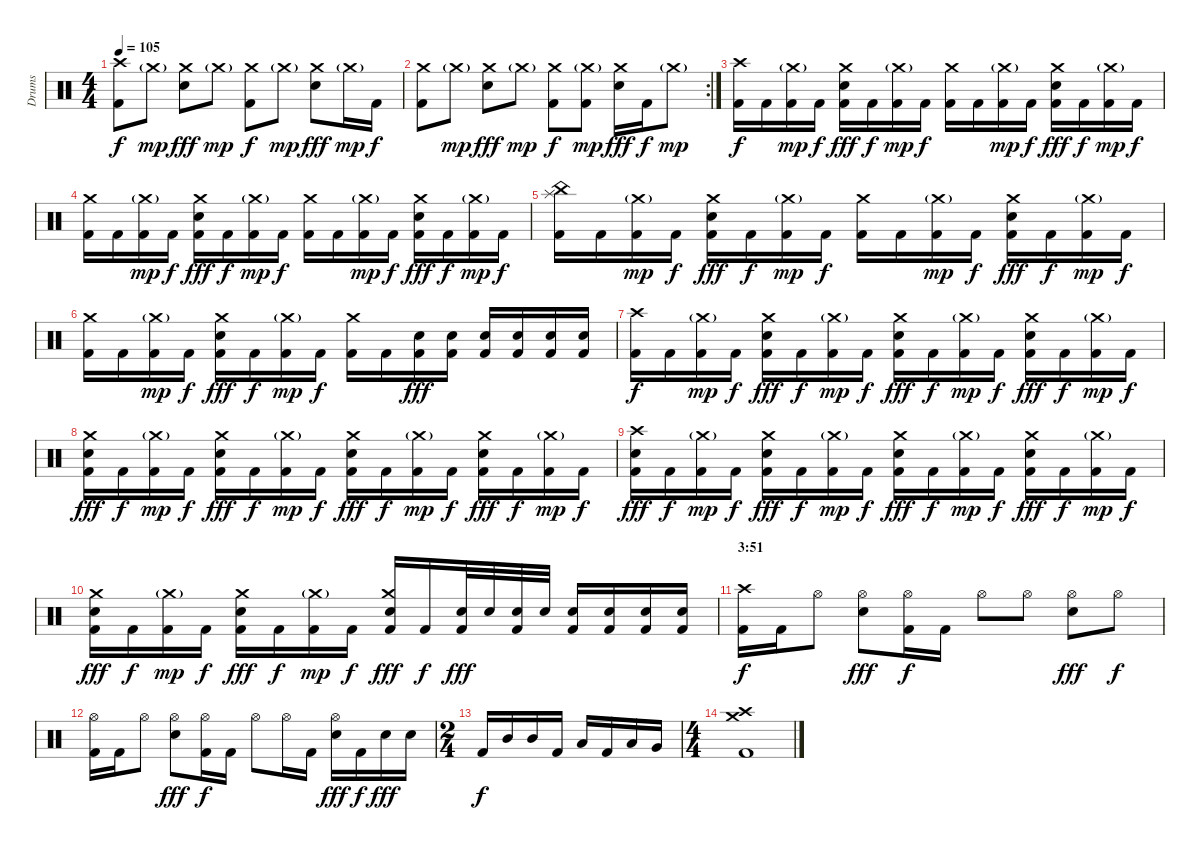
\track ("Drums" "Drums") {instrument percussion}
\staff {score}
\articulation defaults
\ts (4 4)
\tempo 105
\clef neutral
\ks c
("Crash high (hit)" "Kick (hit) 2").8{dy f} "Crash medium (hit)"{g}.8{dy mp} ("Crash medium (hit)" "Snare (hit) 2").8{dy fff} "Crash medium (hit)"{g}.8{dy mp} ("Crash medium (hit)" "Kick (hit) 2").8{dy f} "Crash medium (hit)"{g}.8{dy mp} ("Crash medium (hit)" "Snare (hit) 2").8{dy fff} "Crash medium (hit)"{g}.16{dy mp} "Kick (hit) 2".16{dy f} |
\rc 2
("Crash medium (hit)" "Kick (hit) 2").8 "Crash medium (hit)"{g}.8{dy mp} ("Crash medium (hit)" "Snare (hit) 2").8{dy fff} "Crash medium (hit)"{g}.8{dy mp} ("Crash medium (hit)" "Kick (hit) 2").8{dy f} ("Crash medium (hit)"{g} "Kick (hit) 2").8{dy mp} ("Crash medium (hit)" "Snare (hit) 2").16{dy fff} "Kick (hit) 2".16{dy f} "Crash medium (hit)"{g}.8{dy mp} |
("Crash high (hit)" "Kick (hit) 2").16{dy f} "Kick (hit) 2".16 ("Crash medium (hit)"{g} "Kick (hit) 2").16{dy mp} "Kick (hit) 2".16{dy f} ("Crash medium (hit)" "Snare (hit) 2" "Kick (hit) 2").16{dy fff} "Kick (hit) 2".16{dy f} ("Crash medium (hit)"{g} "Kick (hit) 2").16{dy mp} "Kick (hit) 2".16{dy f} ("Crash medium (hit)" "Kick (hit) 2").16 "Kick (hit) 2".16 ("Crash medium (hit)"{g} "Kick (hit) 2").16{dy mp} "Kick (hit) 2".16{dy f} ("Crash medium (hit)" "Snare (hit) 2" "Kick (hit) 2").16{dy fff} "Kick (hit) 2".16{dy f} ("Crash medium (hit)"{g} "Kick (hit) 2").16{dy mp} "Kick (hit) 2".16{dy f} |
("Crash medium (hit)" "Kick (hit) 2").16 "Kick (hit) 2".16 ("Crash medium (hit)"{g} "Kick (hit) 2").16{dy mp} "Kick (hit) 2".16{dy f} ("Crash medium (hit)" "Snare (hit) 2" "Kick (hit) 2").16{dy fff} "Kick (hit) 2".16{dy f} ("Crash medium (hit)"{g} "Kick (hit) 2").16{dy mp} "Kick (hit) 2".16{dy f} ("Crash medium (hit)" "Kick (hit) 2").16 "Kick (hit) 2".16 ("Crash medium (hit)"{g} "Kick (hit) 2").16{dy mp} "Kick (hit) 2".16{dy f} ("Crash medium (hit)" "Snare (hit) 2" "Kick (hit) 2").16{dy fff} "Kick (hit) 2".16{dy f} ("Crash medium (hit)"{g} "Kick (hit) 2").16{dy mp} "Kick (hit) 2".16{dy f} |
("China (hit)" "Splash (hit)" "Kick (hit) 2").16 "Kick (hit) 2".16 ("Crash medium (hit)"{g} "Kick (hit) 2").16{dy mp} "Kick (hit) 2".16{dy f} ("Crash medium (hit)" "Snare (hit) 2" "Kick (hit) 2").16{dy fff} "Kick (hit) 2".16{dy f} ("Crash medium (hit)"{g} "Kick (hit) 2").16{dy mp} "Kick (hit) 2".16{dy f} ("Crash medium (hit)" "Kick (hit) 2").16 "Kick (hit) 2".16 ("Crash medium (hit)"{g} "Kick (hit) 2").16{dy mp} "Kick (hit) 2".16{dy f} ("Crash medium (hit)" "Snare (hit) 2" "Kick (hit) 2").16{dy fff} "Kick (hit) 2".16{dy f} ("Crash medium (hit)"{g} "Kick (hit) 2").16{dy mp} "Kick (hit) 2".16{dy f} |
("Crash medium (hit)" "Kick (hit) 2").16 "Kick (hit) 2".16 ("Crash medium (hit)"{g} "Kick (hit) 2").16{dy mp} "Kick (hit) 2".16{dy f} ("Crash medium (hit)" "Snare (hit) 2" "Kick (hit) 2").16{dy fff} "Kick (hit) 2".16{dy f} ("Crash medium (hit)"{g} "Kick (hit) 2").16{dy mp} "Kick (hit) 2".16{dy f} ("Crash medium (hit)" "Kick (hit) 2").16 "Kick (hit) 2".16 ("Snare (hit) 2" "Kick (hit) 2").16{dy fff} ("Snare (hit) 2" "Kick (hit) 2").16 ("Snare (hit) 2" "Kick (hit) 2").16 ("Snare (hit) 2" "Kick (hit) 2").16 ("Snare (hit) 2" "Kick (hit) 2").16 ("Snare (hit) 2" "Kick (hit) 2").16 |
("Crash high (hit)" "Kick (hit) 2").16{dy f} "Kick (hit) 2".16 ("Crash medium (hit)"{g} "Kick (hit) 2").16{dy mp} "Kick (hit) 2".16{dy f} ("Crash medium (hit)" "Snare (hit) 2" "Kick (hit) 2").16{dy fff} "Kick (hit) 2".16{dy f} ("Crash medium (hit)"{g} "Kick (hit) 2").16{dy mp} "Kick (hit) 2".16{dy f} ("Crash medium (hit)" "Snare (hit) 2" "Kick (hit) 2").16{dy fff} "Kick (hit) 2".16{dy f} ("Crash medium (hit)"{g} "Kick (hit) 2").16{dy mp} "Kick (hit) 2".16{dy f} ("Crash medium (hit)" "Snare (hit) 2" "Kick (hit) 2").16{dy fff} "Kick (hit) 2".16{dy f} ("Crash medium (hit)"{g} "Kick (hit) 2").16{dy mp} "Kick (hit) 2".16{dy f} |
("Crash medium (hit)" "Snare (hit) 2" "Kick (hit) 2").16{dy fff} "Kick (hit) 2".16{dy f} ("Crash medium (hit)"{g} "Kick (hit) 2").16{dy mp} "Kick (hit) 2".16{dy f} ("Crash medium (hit)" "Snare (hit) 2" "Kick (hit) 2").16{dy fff} "Kick (hit) 2".16{dy f} ("Crash medium (hit)"{g} "Kick (hit) 2").16{dy mp} "Kick (hit) 2".16{dy f} ("Crash medium (hit)" "Snare (hit) 2" "Kick (hit) 2").16{dy fff} "Kick (hit) 2".16{dy f} ("Crash medium (hit)"{g} "Kick (hit) 2").16{dy mp} "Kick (hit) 2".16{dy f} ("Crash medium (hit)" "Snare (hit) 2" "Kick (hit) 2").16{dy fff} "Kick (hit) 2".16{dy f} ("Crash medium (hit)"{g} "Kick (hit) 2").16{dy mp} "Kick (hit) 2".16{dy f} |
("Crash high (hit)" "Snare (hit) 2" "Kick (hit) 2").16{dy fff} "Kick (hit) 2".16{dy f} ("Crash medium (hit)"{g} "Kick (hit) 2").16{dy mp} "Kick (hit) 2".16{dy f} ("Crash medium (hit)" "Snare (hit) 2" "Kick (hit) 2").16{dy fff} "Kick (hit) 2".16{dy f} ("Crash medium (hit)"{g} "Kick (hit) 2").16{dy mp} "Kick (hit) 2".16{dy f} ("Crash medium (hit)" "Snare (hit) 2" "Kick (hit) 2").16{dy fff} "Kick (hit) 2".16{dy f} ("Crash medium (hit)"{g} "Kick (hit) 2").16{dy mp} "Kick (hit) 2".16{dy f} ("Crash medium (hit)" "Snare (hit) 2" "Kick (hit) 2").16{dy fff} "Kick (hit) 2".16{dy f} ("Crash medium (hit)"{g} "Kick (hit) 2").16{dy mp} "Kick (hit) 2".16{dy f} |
("Crash medium (hit)" "Snare (hit) 2" "Kick (hit) 2").16{dy fff} "Kick (hit) 2".16{dy f} ("Crash medium (hit)"{g} "Kick (hit) 2").16{dy mp} "Kick (hit) 2".16{dy f} ("Crash medium (hit)" "Snare (hit) 2" "Kick (hit) 2").16{dy fff} "Kick (hit) 2".16{dy f} ("Crash medium (hit)"{g} "Kick (hit) 2").16{dy mp} "Kick (hit) 2".16{dy f} ("Crash medium (hit)" "Snare (hit) 2" "Kick (hit) 2").16{dy fff} "Kick (hit) 2".16{dy f} ("Snare (hit) 2" "Kick (hit) 2").32{dy fff} "Snare (hit) 2".32 ("Snare (hit) 2" "Kick (hit) 2").32 "Snare (hit) 2".32 ("Snare (hit) 2" "Kick (hit) 2").16 ("Snare (hit) 2" "Kick (hit) 2").16 ("Snare (hit) 2" "Kick (hit) 2").16 ("Snare (hit) 2" "Kick (hit) 2").16 |
\section ("" "3:51")
("Crash high (hit)" "Kick (hit) 2").16{dy f} "Kick (hit) 2".16 "Hi-Hat (open)".8 ("Hi-Hat (open)" "Snare (hit) 2").8{dy fff} ("Hi-Hat (open)" "Kick (hit) 2").16{dy f} "Kick (hit) 2".16 "Hi-Hat (open)".8 "Hi-Hat (open)".8 ("Hi-Hat (open)" "Snare (hit) 2").8{dy fff} "Hi-Hat (open)".8{dy f} |
("Hi-Hat (open)" "Kick (hit) 2").16 "Kick (hit) 2".16 "Hi-Hat (open)".8 ("Hi-Hat (open)" "Snare (hit) 2").8{dy fff} ("Hi-Hat (open)" "Kick (hit) 2").16{dy f} "Kick (hit) 2".16 "Hi-Hat (open)".8 "Hi-Hat (open)".16 "Kick (hit) 2".16 ("Hi-Hat (open)" "Snare (hit) 2").16{dy fff} "Kick (hit) 2".16{dy f} "Snare (hit) 2".16{dy fff} "Snare (hit) 2".16 |
\ts (2 4)
"Kick (hit) 2".16{dy f} "Mid Tom (hit)".16 "Mid Tom (hit)".16 "Kick (hit) 2".16 "Low Tom (hit)".16 "Kick (hit) 2".16 "Low Tom (hit)".16 "Very Low Tom (hit)".16 |
\ts (4 4)
("Crash medium (hit)" "Crash high (hit)" "Kick (hit) 2").1
